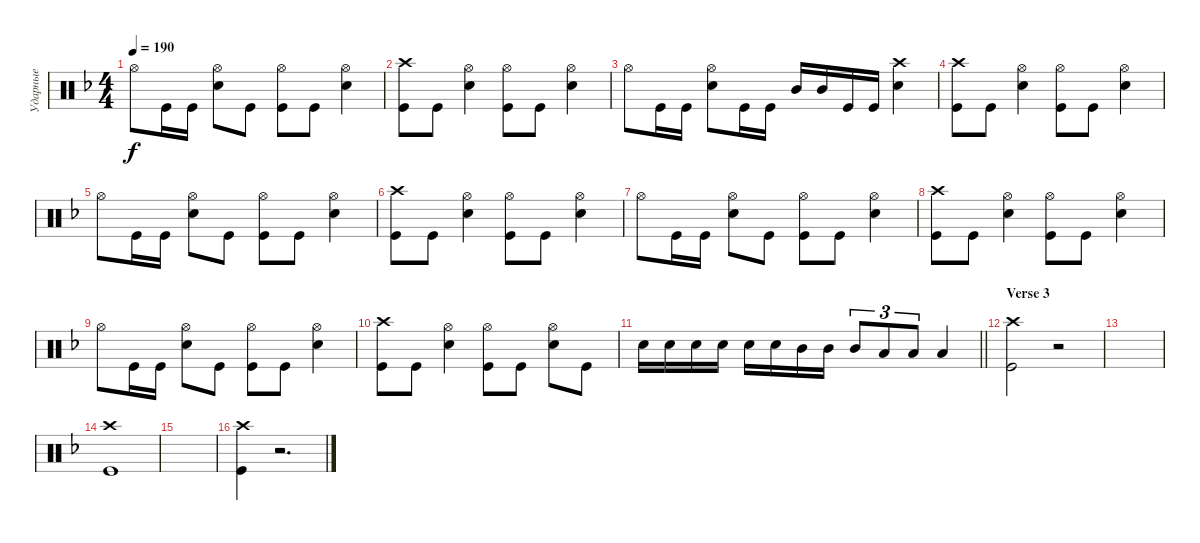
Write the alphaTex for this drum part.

\track ("Ударные" "Ударные") {instrument percussion}
\staff {score}
\articulation defaults
\ts (4 4)
\tempo 190
\clef neutral
\ks dminor "Hi-Hat (open)".8{dy f} "Kick (hit)".16 "Kick (hit)".16
("Snare (hit) 2" "Hi-Hat (open)").8 "Kick (hit)".8 ("Kick (hit)" "Hi-Hat (open)").8 "Kick (hit)".8 ("Snare (hit) 2" "Hi-Hat (open)").4 |
("Kick (hit)" "Crash high (hit)").8 "Kick (hit)".8 ("Snare (hit) 2" "Hi-Hat (open)").4 ("Kick (hit)" "Hi-Hat (open)").8 "Kick (hit)".8 ("Snare (hit) 2" "Hi-Hat (open)").4 |
"Hi-Hat (open)".8 "Kick (hit)".16 "Kick (hit)".16 ("Snare (hit) 2" "Hi-Hat (open)").8 "Kick (hit)".16 "Kick (hit)".16 "Mid Tom (hit)".16 "Mid Tom (hit)".16 "Kick (hit)".16 "Kick (hit)".16 ("Snare (hit) 2" "Crash high (hit)").4 |
("Kick (hit)" "Crash high (hit)").8 "Kick (hit)".8 ("Snare (hit) 2" "Hi-Hat (open)").4 ("Kick (hit)" "Hi-Hat (open)").8 "Kick (hit)".8 ("Snare (hit) 2" "Hi-Hat (open)").4 |
"Hi-Hat (open)".8 "Kick (hit)".16 "Kick (hit)".16 ("Snare (hit) 2" "Hi-Hat (open)").8 "Kick (hit)".8 ("Kick (hit)" "Hi-Hat (open)").8 "Kick (hit)".8 ("Snare (hit) 2" "Hi-Hat (open)").4 |
("Kick (hit)" "Crash high (hit)").8 "Kick (hit)".8 ("Snare (hit) 2" "Hi-Hat (open)").4 ("Kick (hit)" "Hi-Hat (open)").8 "Kick (hit)".8 ("Snare (hit) 2" "Hi-Hat (open)").4 |
"Hi-Hat (open)".8 "Kick (hit)".16 "Kick (hit)".16 ("Snare (hit) 2" "Hi-Hat (open)").8 "Kick (hit)".8 ("Kick (hit)" "Hi-Hat (open)").8 "Kick (hit)".8 ("Snare (hit) 2" "Hi-Hat (open)").4 |
("Kick (hit)" "Crash high (hit)").8 "Kick (hit)".8 ("Snare (hit) 2" "Hi-Hat (open)").4 ("Kick (hit)" "Hi-Hat (open)").8 "Kick (hit)".8 ("Snare (hit) 2" "Hi-Hat (open)").4 |
"Hi-Hat (open)".8 "Kick (hit)".16 "Kick (hit)".16 ("Snare (hit) 2" "Hi-Hat (open)").8 "Kick (hit)".8 ("Kick (hit)" "Hi-Hat (open)").8 "Kick (hit)".8 ("Snare (hit) 2" "Hi-Hat (open)").4 |
("Kick (hit)" "Crash high (hit)").8 "Kick (hit)".8 ("Snare (hit) 2" "Hi-Hat (open)").4 ("Kick (hit)" "Hi-Hat (open)").8 "Kick (hit)".8 ("Snare (hit) 2" "Hi-Hat (open)").8 "Kick (hit)".8 |
\barLineRight lightlight "Snare (hit) 2".16 "Snare (hit) 2".16 "Snare (hit) 2".16 "Snare (hit) 2".16 "Snare (hit) 2".16 "Snare (hit) 2".16 "Mid Tom (hit)".16 "Mid Tom (hit)".16 "Mid Tom (hit)".8{tu (3 2)} "Low Tom (hit)".8{tu (3 2)} "Low Tom (hit)".8{tu (3 2)} "Low Tom (hit)".4
|
\section ("" "Verse 3")
("Kick (hit)" "Crash high (hit)").2 r.2 |
|
("Kick (hit)" "Crash high (hit)").1 |
|
("Kick (hit)" "Crash high (hit)").4 r.2{d}
